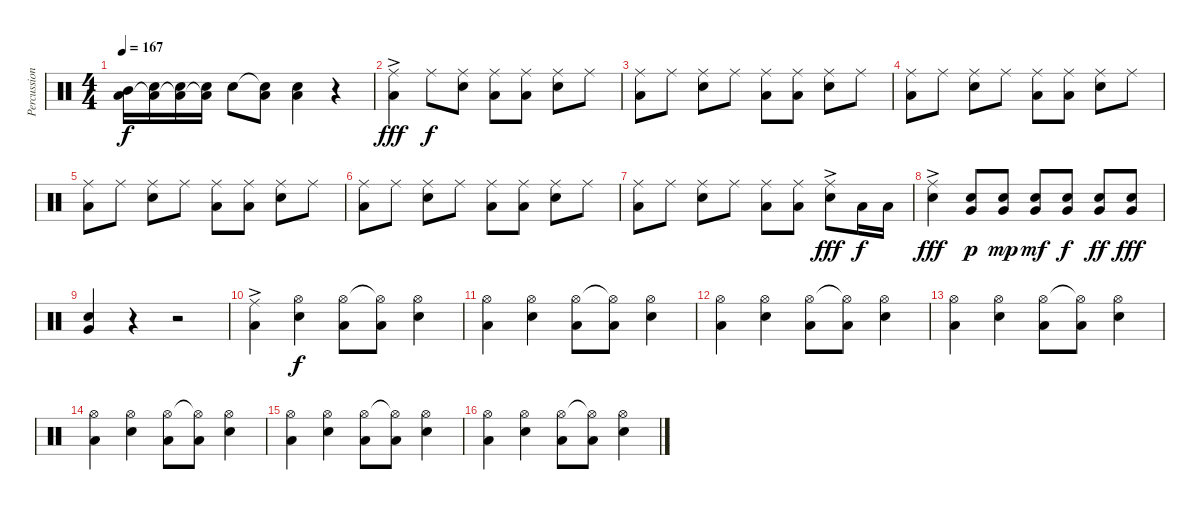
\track ("Percussion" "Percussion") {instrument percussion}
\staff {score}
\articulation defaults
\ts (4 4)
\tempo 167
\clef neutral
\ks c
("Mid Tom (hit)" "Low Floor Tom (hit)").16{dy f} ("Snare (hit) 2" "Low Floor Tom (hit)"{t}).16 ("Snare (hit) 2" "Low Floor Tom (hit)"{t}).16 ("Snare (hit) 2" "Low Floor Tom (hit)"{t}).16 "Snare (hit) 2".8 ("Snare (hit) 2"{t} "Low Floor Tom (hit)").8 ("Snare (hit) 2" "Low Tom (hit)").4 r.4 |
("Ride (middle)"{ac} "Low Floor Tom (hit)").4{dy fff} "Ride (middle)".8{dy f} ("Ride (middle)" "Snare (hit) 2").8 ("Ride (middle)" "Low Floor Tom (hit)").8 ("Ride (middle)" "Low Floor Tom (hit)").8 ("Ride (middle)" "Snare (hit) 2").8 "Ride (middle)".8 |
("Ride (middle)" "Low Floor Tom (hit)").8 "Ride (middle)".8 ("Ride (middle)" "Snare (hit) 2").8 "Ride (middle)".8 ("Ride (middle)" "Low Floor Tom (hit)").8 ("Ride (middle)" "Low Floor Tom (hit)").8 ("Ride (middle)" "Snare (hit) 2").8 "Ride (middle)".8 |
("Ride (middle)" "Low Floor Tom (hit)").8 "Ride (middle)".8 ("Ride (middle)" "Snare (hit) 2").8 "Ride (middle)".8 ("Ride (middle)" "Low Floor Tom (hit)").8 ("Ride (middle)" "Low Floor Tom (hit)").8 ("Ride (middle)" "Snare (hit) 2").8 "Ride (middle)".8 |
("Ride (middle)" "Low Floor Tom (hit)").8 "Ride (middle)".8 ("Ride (middle)" "Snare (hit) 2").8 "Ride (middle)".8 ("Ride (middle)" "Low Floor Tom (hit)").8 ("Ride (middle)" "Low Floor Tom (hit)").8 ("Ride (middle)" "Snare (hit) 2").8 "Ride (middle)".8 |
("Ride (middle)" "Low Floor Tom (hit)").8 "Ride (middle)".8 ("Ride (middle)" "Snare (hit) 2").8 "Ride (middle)".8 ("Ride (middle)" "Low Floor Tom (hit)").8 ("Ride (middle)" "Low Floor Tom (hit)").8 ("Ride (middle)" "Snare (hit) 2").8 "Ride (middle)".8 |
("Ride (middle)" "Low Floor Tom (hit)").8 "Ride (middle)".8 ("Ride (middle)" "Snare (hit) 2").8 "Ride (middle)".8 ("Ride (middle)" "Low Floor Tom (hit)").8 ("Ride (middle)" "Low Floor Tom (hit)").8 ("Ride (middle)"{ac} "Snare (hit) 2").8{dy fff} "Low Floor Tom (hit)".16{dy f} "Low Floor Tom (hit)".16 |
("Ride (middle)"{ac} "Snare (hit) 2").4{dy fff} ("Snare (hit) 2" "Very Low Tom (hit)").8{dy p} ("Snare (hit) 2" "Very Low Tom (hit)").8{dy mp} ("Snare (hit) 2" "Very Low Tom (hit)").8{dy mf} ("Snare (hit) 2" "Very Low Tom (hit)").8{dy f} ("Snare (hit) 2" "Very Low Tom (hit)").8{dy ff} ("Snare (hit) 2" "Very Low Tom (hit)").8{dy fff} |
("Snare (hit) 2" "Very Low Tom (hit)").4 r.4 r.2 |
("Ride (middle)"{ac} "Low Floor Tom (hit)").4 ("Hi-Hat (open)" "Snare (hit) 2").4{dy f} ("Hi-Hat (open)" "Low Floor Tom (hit)").8 ("Hi-Hat (open)"{t} "Low Floor Tom (hit)").8 ("Hi-Hat (open)" "Snare (hit) 2").4 |
("Hi-Hat (open)" "Low Floor Tom (hit)").4 ("Hi-Hat (open)" "Snare (hit) 2").4 ("Hi-Hat (open)" "Low Floor Tom (hit)").8 ("Hi-Hat (open)"{t} "Low Floor Tom (hit)").8 ("Hi-Hat (open)" "Snare (hit) 2").4 |
("Hi-Hat (open)" "Low Floor Tom (hit)").4 ("Hi-Hat (open)" "Snare (hit) 2").4 ("Hi-Hat (open)" "Low Floor Tom (hit)").8 ("Hi-Hat (open)"{t} "Low Floor Tom (hit)").8 ("Hi-Hat (open)" "Snare (hit) 2").4 |
("Hi-Hat (open)" "Low Floor Tom (hit)").4 ("Hi-Hat (open)" "Snare (hit) 2").4 ("Hi-Hat (open)" "Low Floor Tom (hit)").8 ("Hi-Hat (open)"{t} "Low Floor Tom (hit)").8 ("Hi-Hat (open)" "Snare (hit) 2").4 |
("Hi-Hat (open)" "Low Floor Tom (hit)").4 ("Hi-Hat (open)" "Snare (hit) 2").4 ("Hi-Hat (open)" "Low Floor Tom (hit)").8 ("Hi-Hat (open)"{t} "Low Floor Tom (hit)").8 ("Hi-Hat (open)" "Snare (hit) 2").4 |
("Hi-Hat (open)" "Low Floor Tom (hit)").4 ("Hi-Hat (open)" "Snare (hit) 2").4 ("Hi-Hat (open)" "Low Floor Tom (hit)").8 ("Hi-Hat (open)"{t} "Low Floor Tom (hit)").8 ("Hi-Hat (open)" "Snare (hit) 2").4 |
("Hi-Hat (open)" "Low Floor Tom (hit)").4 ("Hi-Hat (open)" "Snare (hit) 2").4 ("Hi-Hat (open)" "Low Floor Tom (hit)").8 ("Hi-Hat (open)"{t} "Low Floor Tom (hit)").8 ("Hi-Hat (open)" "Snare (hit) 2").4
